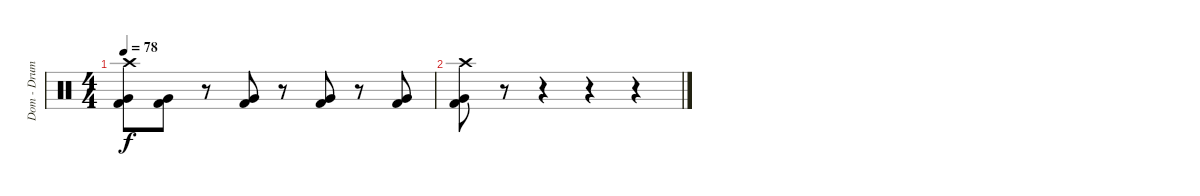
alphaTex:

\track ("Dom - Drums" "Dom - Drum") {instrument percussion}
\staff {score}
\articulation defaults
\ts (4 4)
\tempo 78
\clef neutral
\ks c
("Crash high (hit)" "Very Low Tom (hit)" "Kick (hit) 2").8{dy f} ("Very Low Tom (hit)" "Kick (hit) 2").8 r.8 ("Very Low Tom (hit)" "Kick (hit) 2").8 r.8 ("Very Low Tom (hit)" "Kick (hit) 2").8 r.8 ("Very Low Tom (hit)" "Kick (hit) 2").8 |
("Crash high (hit)" "Very Low Tom (hit)" "Kick (hit) 2").8 r.8 r.4 r.4 r.4
